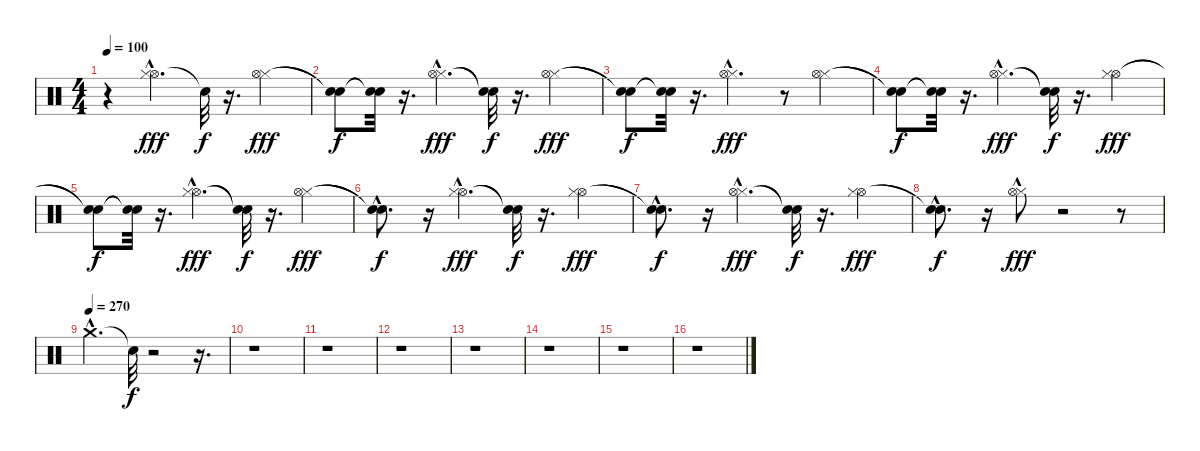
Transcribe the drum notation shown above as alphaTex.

\track "" {instrument percussion}
\staff {score}
\articulation defaults
\ts (4 4)
\tempo 100
\clef neutral
\ks c
r.4{dy fff} ("Hi-Hat (open)"{hac} "Hi-Hat (closed)"{hac}).4{d} "Snare (hit)"{t}.32{dy f} r.16{d} ("Hi-Hat (closed)" "Hi-Hat (open)").4{dy fff} |
("Snare (hit)"{t} "Snare (hit)"{t}).8{dy f} ("Snare (hit)"{t} "Snare (hit)"{t}).32 r.16{d} ("Hi-Hat (closed)"{hac} "Hi-Hat (open)"{hac}).4{d dy fff} ("Snare (hit)"{t} "Snare (hit)"{t}).32{dy f} r.16{d} ("Hi-Hat (closed)" "Hi-Hat (open)").4{dy fff} |
("Snare (hit)"{t} "Snare (hit)"{t}).8{dy f} ("Snare (hit)"{t} "Snare (hit)"{t}).32 r.16{d} ("Hi-Hat (closed)"{hac} "Hi-Hat (open)"{hac}).4{d dy fff} r.8 ("Hi-Hat (closed)" "Hi-Hat (open)").4 |
("Snare (hit)"{t} "Snare (hit)"{t}).8{dy f} ("Snare (hit)"{t} "Snare (hit)"{t}).32 r.16{d} ("Hi-Hat (closed)"{hac} "Hi-Hat (open)"{hac}).4{d dy fff} ("Snare (hit)"{t} "Snare (hit)"{t}).32{dy f} r.16{d} ("Hi-Hat (open)" "Hi-Hat (closed)").4{dy fff} |
("Snare (hit)"{t} "Snare (hit)"{t}).8{dy f} ("Snare (hit)"{t} "Snare (hit)"{t}).32 r.16{d} ("Hi-Hat (open)"{hac} "Hi-Hat (closed)"{hac}).4{d dy fff} ("Snare (hit)"{t} "Snare (hit)"{t}).32{dy f} r.16{d} ("Hi-Hat (closed)" "Hi-Hat (open)").4{dy fff} |
("Snare (hit)"{hac t} "Snare (hit)"{hac t}).8{d dy f} r.16 ("Hi-Hat (open)"{hac} "Hi-Hat (closed)"{hac}).4{d dy fff} ("Snare (hit)"{t} "Snare (hit)"{t}).32{dy f} r.16{d} ("Hi-Hat (open)" "Hi-Hat (closed)").4{dy fff} |
("Snare (hit)"{hac t} "Snare (hit)"{hac t}).8{d dy f} r.16 ("Hi-Hat (closed)"{hac} "Hi-Hat (open)"{hac}).4{d dy fff} ("Snare (hit)"{t} "Snare (hit)"{t}).32{dy f} r.16{d} ("Hi-Hat (open)" "Hi-Hat (closed)").4{dy fff} |
("Snare (hit)"{hac t} "Snare (hit)"{hac t}).8{d dy f} r.16 ("Hi-Hat (closed)"{hac} "Hi-Hat (open)").8{dy fff} r.2 r.8 |
\tempo (270)
"Crash medium (hit)"{hac}.4{d} "Snare (hit)"{t}.32{dy f} r.2 r.16{d} |
r.1 |
r.1 |
r.1 |
r.1 |
r.1 |
r.1 |
r.1
